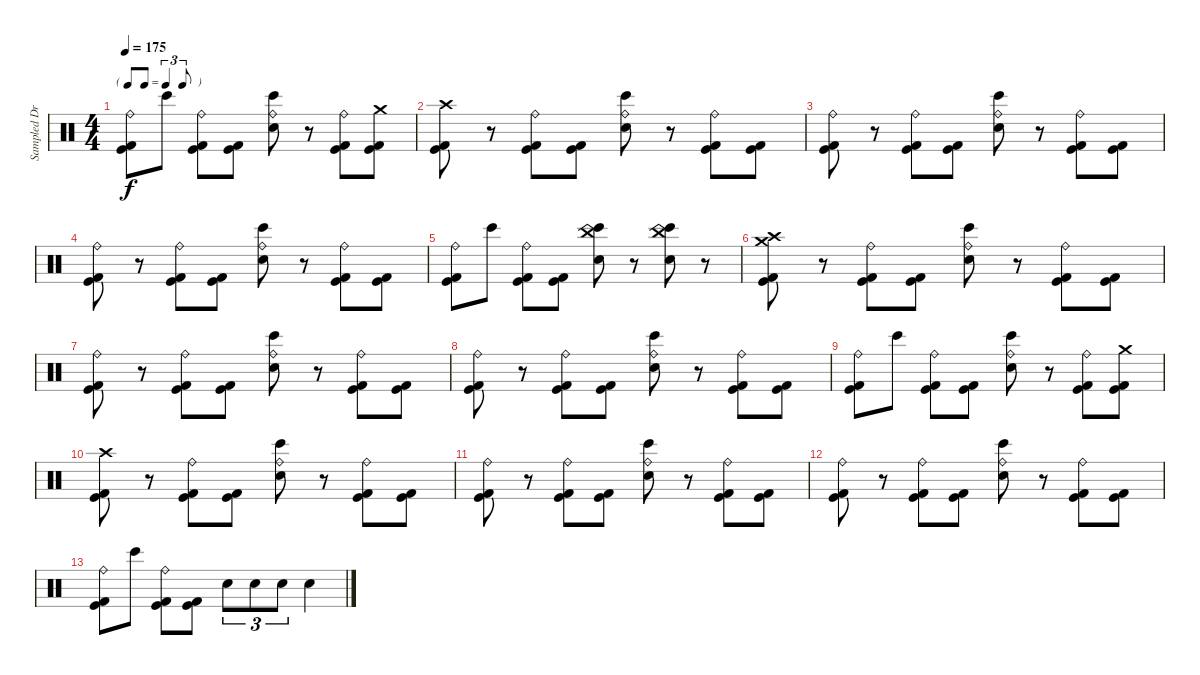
\track ("Sampled Drums" "Sampled Dr") {instrument percussion}
\staff {score}
\articulation defaults
\ts (4 4)
\tf triplet8th
\tempo 175
\clef neutral
\ks c
("Ride (bell)" "Kick (hit)" "Kick (hit) 2").8{dy f} "Bongo High (hit)".8 ("Ride (bell)" "Kick (hit)" "Kick (hit) 2").8 ("Kick (hit)" "Kick (hit) 2").8 ("Ride (bell)" "Bongo High (hit)" "Snare (hit) 2").8 r.8 ("Ride (bell)" "Kick (hit)" "Kick (hit) 2").8 ("Crash medium (hit)" "Kick (hit)" "Kick (hit) 2").8 |
("Crash high (hit)" "Kick (hit)" "Kick (hit) 2").8 r.8 ("Ride (bell)" "Kick (hit)" "Kick (hit) 2").8 ("Kick (hit)" "Kick (hit) 2").8 ("Ride (bell)" "Bongo High (hit)" "Snare (hit) 2").8 r.8 ("Ride (bell)" "Kick (hit)" "Kick (hit) 2").8 ("Kick (hit)" "Kick (hit) 2").8 |
("Ride (bell)" "Kick (hit)" "Kick (hit) 2").8 r.8 ("Ride (bell)" "Kick (hit)" "Kick (hit) 2").8 ("Kick (hit)" "Kick (hit) 2").8 ("Ride (bell)" "Bongo High (hit)" "Snare (hit) 2").8 r.8 ("Ride (bell)" "Kick (hit)" "Kick (hit) 2").8 ("Kick (hit)" "Kick (hit) 2").8 |
("Ride (bell)" "Kick (hit)" "Kick (hit) 2").8 r.8 ("Ride (bell)" "Kick (hit)" "Kick (hit) 2").8 ("Kick (hit)" "Kick (hit) 2").8 ("Ride (bell)" "Bongo High (hit)" "Snare (hit) 2").8 r.8 ("Ride (bell)" "Kick (hit)" "Kick (hit) 2").8 ("Kick (hit)" "Kick (hit) 2").8 |
("Ride (bell)" "Kick (hit)" "Kick (hit) 2").8 "Bongo High (hit)".8 ("Ride (bell)" "Kick (hit)" "Kick (hit) 2").8 ("Kick (hit)" "Kick (hit) 2").8 ("China (hit)" "Bongo High (hit)" "Snare (hit) 2").8 r.8 ("China (hit)" "Bongo High (hit)" "Snare (hit) 2").8 r.8 |
("Crash medium (hit)" "Crash high (hit)" "Kick (hit)" "Kick (hit) 2").8 r.8 ("Ride (bell)" "Kick (hit)" "Kick (hit) 2").8 ("Kick (hit)" "Kick (hit) 2").8 ("Ride (bell)" "Bongo High (hit)" "Snare (hit) 2").8 r.8 ("Ride (bell)" "Kick (hit)" "Kick (hit) 2").8 ("Kick (hit)" "Kick (hit) 2").8 |
("Ride (bell)" "Kick (hit)" "Kick (hit) 2").8 r.8 ("Ride (bell)" "Kick (hit)" "Kick (hit) 2").8 ("Kick (hit)" "Kick (hit) 2").8 ("Ride (bell)" "Bongo High (hit)" "Snare (hit) 2").8 r.8 ("Ride (bell)" "Kick (hit)" "Kick (hit) 2").8 ("Kick (hit)" "Kick (hit) 2").8 |
("Ride (bell)" "Kick (hit)" "Kick (hit) 2").8 r.8 ("Ride (bell)" "Kick (hit)" "Kick (hit) 2").8 ("Kick (hit)" "Kick (hit) 2").8 ("Ride (bell)" "Bongo High (hit)" "Snare (hit) 2").8 r.8 ("Ride (bell)" "Kick (hit)" "Kick (hit) 2").8 ("Kick (hit)" "Kick (hit) 2").8 |
("Ride (bell)" "Kick (hit)" "Kick (hit) 2").8 "Bongo High (hit)".8 ("Ride (bell)" "Kick (hit)" "Kick (hit) 2").8 ("Kick (hit)" "Kick (hit) 2").8 ("Ride (bell)" "Bongo High (hit)" "Snare (hit) 2").8 r.8 ("Ride (bell)" "Kick (hit)" "Kick (hit) 2").8 ("Crash medium (hit)" "Kick (hit)" "Kick (hit) 2").8 |
("Crash high (hit)" "Kick (hit)" "Kick (hit) 2").8 r.8 ("Ride (bell)" "Kick (hit)" "Kick (hit) 2").8 ("Kick (hit)" "Kick (hit) 2").8 ("Ride (bell)" "Bongo High (hit)" "Snare (hit) 2").8 r.8 ("Ride (bell)" "Kick (hit)" "Kick (hit) 2").8 ("Kick (hit)" "Kick (hit) 2").8 |
("Ride (bell)" "Kick (hit)" "Kick (hit) 2").8 r.8 ("Ride (bell)" "Kick (hit)" "Kick (hit) 2").8 ("Kick (hit)" "Kick (hit) 2").8 ("Ride (bell)" "Bongo High (hit)" "Snare (hit) 2").8 r.8 ("Ride (bell)" "Kick (hit)" "Kick (hit) 2").8 ("Kick (hit)" "Kick (hit) 2").8 |
("Ride (bell)" "Kick (hit)" "Kick (hit) 2").8 r.8 ("Ride (bell)" "Kick (hit)" "Kick (hit) 2").8 ("Kick (hit)" "Kick (hit) 2").8 ("Ride (bell)" "Bongo High (hit)" "Snare (hit) 2").8 r.8 ("Ride (bell)" "Kick (hit)" "Kick (hit) 2").8 ("Kick (hit)" "Kick (hit) 2").8 |
("Ride (bell)" "Kick (hit)" "Kick (hit) 2").8 "Bongo High (hit)".8 ("Ride (bell)" "Kick (hit)" "Kick (hit) 2").8 ("Kick (hit)" "Kick (hit) 2").8 "Electric Snare (hit)".8{tu (3 2)} "Electric Snare (hit)".8{tu (3 2)} "Electric Snare (hit)".8{tu (3 2)} "Electric Snare (hit)".4
